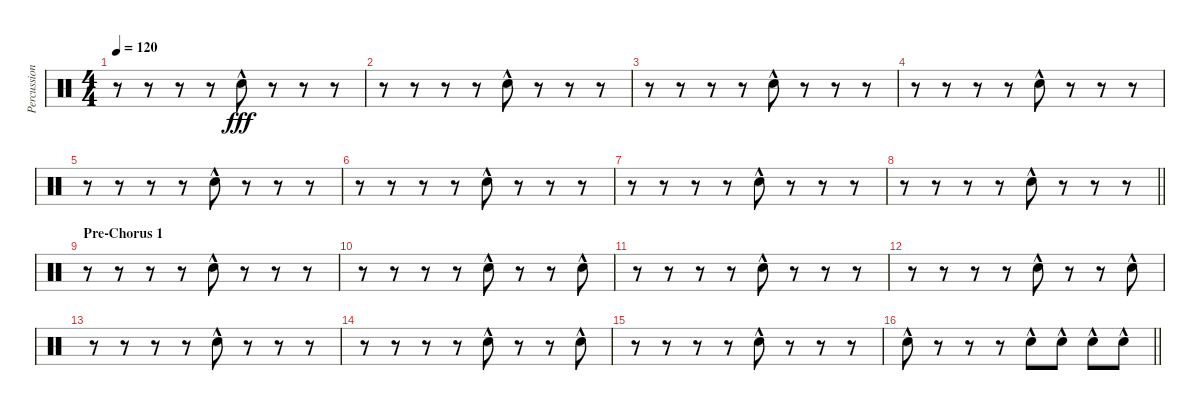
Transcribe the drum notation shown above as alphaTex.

\track ("Percussion" "Percussion") {instrument percussion}
\staff {score}
\articulation defaults
\ts (4 4)
\tempo 120
\clef neutral
\ks c
r.8{dy fff} r.8 r.8 r.8 "Snare (hit) 2"{hac}.8 r.8 r.8 r.8 |
r.8 r.8 r.8 r.8 "Snare (hit) 2"{hac}.8 r.8 r.8 r.8 |
r.8 r.8 r.8 r.8 "Snare (hit) 2"{hac}.8 r.8 r.8 r.8 |
r.8 r.8 r.8 r.8 "Snare (hit) 2"{hac}.8 r.8 r.8 r.8 |
r.8 r.8 r.8 r.8 "Snare (hit) 2"{hac}.8 r.8 r.8 r.8 |
r.8 r.8 r.8 r.8 "Snare (hit) 2"{hac}.8 r.8 r.8 r.8 |
r.8 r.8 r.8 r.8 "Snare (hit) 2"{hac}.8 r.8 r.8 r.8 |
\barLineRight lightlight
r.8 r.8 r.8 r.8 "Snare (hit) 2"{hac}.8 r.8 r.8 r.8 |
\section ("" "Pre-Chorus 1")
r.8 r.8 r.8 r.8 "Snare (hit) 2"{hac}.8 r.8 r.8 r.8 |
r.8 r.8 r.8 r.8 "Snare (hit) 2"{hac}.8 r.8 r.8 "Snare (hit) 2"{hac}.8 |
r.8 r.8 r.8 r.8 "Snare (hit) 2"{hac}.8 r.8 r.8 r.8 |
r.8 r.8 r.8 r.8 "Snare (hit) 2"{hac}.8 r.8 r.8 "Snare (hit) 2"{hac}.8 |
r.8 r.8 r.8 r.8 "Snare (hit) 2"{hac}.8 r.8 r.8 r.8 |
r.8 r.8 r.8 r.8 "Snare (hit) 2"{hac}.8 r.8 r.8 "Snare (hit) 2"{hac}.8 |
r.8 r.8 r.8 r.8 "Snare (hit) 2"{hac}.8 r.8 r.8 r.8 |
\barLineRight lightlight "Snare (hit) 2"{hac}.8
r.8 r.8 r.8 "Snare (hit) 2"{hac}.8 "Snare (hit) 2"{hac}.8 "Snare (hit) 2"{hac}.8 "Snare (hit) 2"{hac}.8
